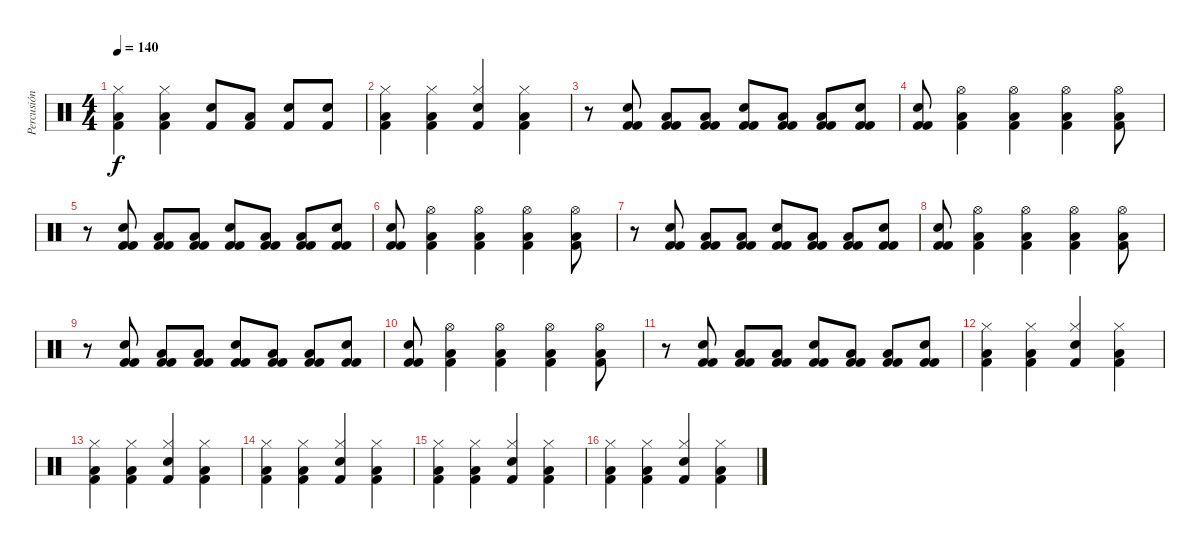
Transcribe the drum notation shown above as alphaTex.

\track ("Percusión" "Percusión") {instrument percussion}
\staff {score}
\articulation defaults
\ts (4 4)
\tempo 140
\clef neutral
\ks c
("Kick (hit) 2" "Low Tom (hit)" "Hi-Hat (closed)").4{dy f} ("Kick (hit) 2" "Low Tom (hit)" "Hi-Hat (closed)").4 ("Kick (hit) 2" "Snare (hit) 2").8 ("Kick (hit) 2" "Low Tom (hit)").8 ("Kick (hit) 2" "Snare (hit) 2").8 ("Kick (hit) 2" "Snare (hit) 2").8 |
("Kick (hit) 2" "Low Tom (hit)" "Hi-Hat (closed)").4 ("Kick (hit) 2" "Low Tom (hit)" "Hi-Hat (closed)").4 ("Kick (hit) 2" "Snare (hit) 2" "Hi-Hat (closed)").4 ("Kick (hit) 2" "Low Tom (hit)" "Hi-Hat (closed)").4 |
r.8 ("Kick (hit) 2" "Kick (hit) 2" "Snare (hit) 2").8 ("Kick (hit) 2" "Kick (hit) 2" "Low Tom (hit)").8 ("Kick (hit) 2" "Kick (hit) 2" "Low Tom (hit)").8 ("Kick (hit) 2" "Kick (hit) 2" "Snare (hit) 2").8 ("Kick (hit) 2" "Kick (hit) 2" "Low Tom (hit)").8 ("Kick (hit) 2" "Kick (hit) 2" "Low Tom (hit)").8 ("Kick (hit) 2" "Kick (hit) 2" "Snare (hit) 2").8 |
("Kick (hit) 2" "Kick (hit) 2" "Snare (hit) 2").8 ("Kick (hit) 2" "Low Tom (hit)" "Hi-Hat (open)").4 ("Kick (hit) 2" "Low Tom (hit)" "Hi-Hat (open)").4 ("Kick (hit) 2" "Low Tom (hit)" "Hi-Hat (open)").4 ("Kick (hit) 2" "Low Tom (hit)" "Hi-Hat (open)").8 |
r.8 ("Kick (hit) 2" "Kick (hit) 2" "Snare (hit) 2").8 ("Kick (hit) 2" "Kick (hit) 2" "Low Tom (hit)").8 ("Kick (hit) 2" "Kick (hit) 2" "Low Tom (hit)").8 ("Kick (hit) 2" "Kick (hit) 2" "Snare (hit) 2").8 ("Kick (hit) 2" "Kick (hit) 2" "Low Tom (hit)").8 ("Kick (hit) 2" "Kick (hit) 2" "Low Tom (hit)").8 ("Kick (hit) 2" "Kick (hit) 2" "Snare (hit) 2").8 |
("Kick (hit) 2" "Kick (hit) 2" "Snare (hit) 2").8 ("Kick (hit) 2" "Low Tom (hit)" "Hi-Hat (open)").4 ("Kick (hit) 2" "Low Tom (hit)" "Hi-Hat (open)").4 ("Kick (hit) 2" "Low Tom (hit)" "Hi-Hat (open)").4 ("Kick (hit) 2" "Low Tom (hit)" "Hi-Hat (open)").8 |
r.8 ("Kick (hit) 2" "Kick (hit) 2" "Snare (hit) 2").8 ("Kick (hit) 2" "Kick (hit) 2" "Low Tom (hit)").8 ("Kick (hit) 2" "Kick (hit) 2" "Low Tom (hit)").8 ("Kick (hit) 2" "Kick (hit) 2" "Snare (hit) 2").8 ("Kick (hit) 2" "Kick (hit) 2" "Low Tom (hit)").8 ("Kick (hit) 2" "Kick (hit) 2" "Low Tom (hit)").8 ("Kick (hit) 2" "Kick (hit) 2" "Snare (hit) 2").8 |
("Kick (hit) 2" "Kick (hit) 2" "Snare (hit) 2").8 ("Kick (hit) 2" "Low Tom (hit)" "Hi-Hat (open)").4 ("Kick (hit) 2" "Low Tom (hit)" "Hi-Hat (open)").4 ("Kick (hit) 2" "Low Tom (hit)" "Hi-Hat (open)").4 ("Kick (hit) 2" "Low Tom (hit)" "Hi-Hat (open)").8 |
r.8 ("Kick (hit) 2" "Kick (hit) 2" "Snare (hit) 2").8 ("Kick (hit) 2" "Kick (hit) 2" "Low Tom (hit)").8 ("Kick (hit) 2" "Kick (hit) 2" "Low Tom (hit)").8 ("Kick (hit) 2" "Kick (hit) 2" "Snare (hit) 2").8 ("Kick (hit) 2" "Kick (hit) 2" "Low Tom (hit)").8 ("Kick (hit) 2" "Kick (hit) 2" "Low Tom (hit)").8 ("Kick (hit) 2" "Kick (hit) 2" "Snare (hit) 2").8 |
("Kick (hit) 2" "Kick (hit) 2" "Snare (hit) 2").8 ("Kick (hit) 2" "Low Tom (hit)" "Hi-Hat (open)").4 ("Kick (hit) 2" "Low Tom (hit)" "Hi-Hat (open)").4 ("Kick (hit) 2" "Low Tom (hit)" "Hi-Hat (open)").4 ("Kick (hit) 2" "Low Tom (hit)" "Hi-Hat (open)").8 |
r.8 ("Kick (hit) 2" "Kick (hit) 2" "Snare (hit) 2").8 ("Kick (hit) 2" "Kick (hit) 2" "Low Tom (hit)").8 ("Kick (hit) 2" "Kick (hit) 2" "Low Tom (hit)").8 ("Kick (hit) 2" "Kick (hit) 2" "Snare (hit) 2").8 ("Kick (hit) 2" "Kick (hit) 2" "Low Tom (hit)").8 ("Kick (hit) 2" "Kick (hit) 2" "Low Tom (hit)").8 ("Kick (hit) 2" "Kick (hit) 2" "Snare (hit) 2").8 |
("Kick (hit) 2" "Low Tom (hit)" "Hi-Hat (closed)").4 ("Kick (hit) 2" "Low Tom (hit)" "Hi-Hat (closed)").4 ("Kick (hit) 2" "Snare (hit) 2" "Hi-Hat (closed)").4 ("Kick (hit) 2" "Low Tom (hit)" "Hi-Hat (closed)").4 |
("Kick (hit) 2" "Low Tom (hit)" "Hi-Hat (closed)").4 ("Kick (hit) 2" "Low Tom (hit)" "Hi-Hat (closed)").4 ("Kick (hit) 2" "Snare (hit) 2" "Hi-Hat (closed)").4 ("Kick (hit) 2" "Low Tom (hit)" "Hi-Hat (closed)").4 |
("Kick (hit) 2" "Low Tom (hit)" "Hi-Hat (closed)").4 ("Kick (hit) 2" "Low Tom (hit)" "Hi-Hat (closed)").4 ("Kick (hit) 2" "Snare (hit) 2" "Hi-Hat (closed)").4 ("Kick (hit) 2" "Low Tom (hit)" "Hi-Hat (closed)").4 |
("Kick (hit) 2" "Low Tom (hit)" "Hi-Hat (closed)").4 ("Kick (hit) 2" "Low Tom (hit)" "Hi-Hat (closed)").4 ("Kick (hit) 2" "Snare (hit) 2" "Hi-Hat (closed)").4 ("Kick (hit) 2" "Low Tom (hit)" "Hi-Hat (closed)").4 |
("Kick (hit) 2" "Low Tom (hit)" "Hi-Hat (closed)").4 ("Kick (hit) 2" "Low Tom (hit)" "Hi-Hat (closed)").4 ("Kick (hit) 2" "Snare (hit) 2" "Hi-Hat (closed)").4 ("Kick (hit) 2" "Low Tom (hit)" "Hi-Hat (closed)").4
